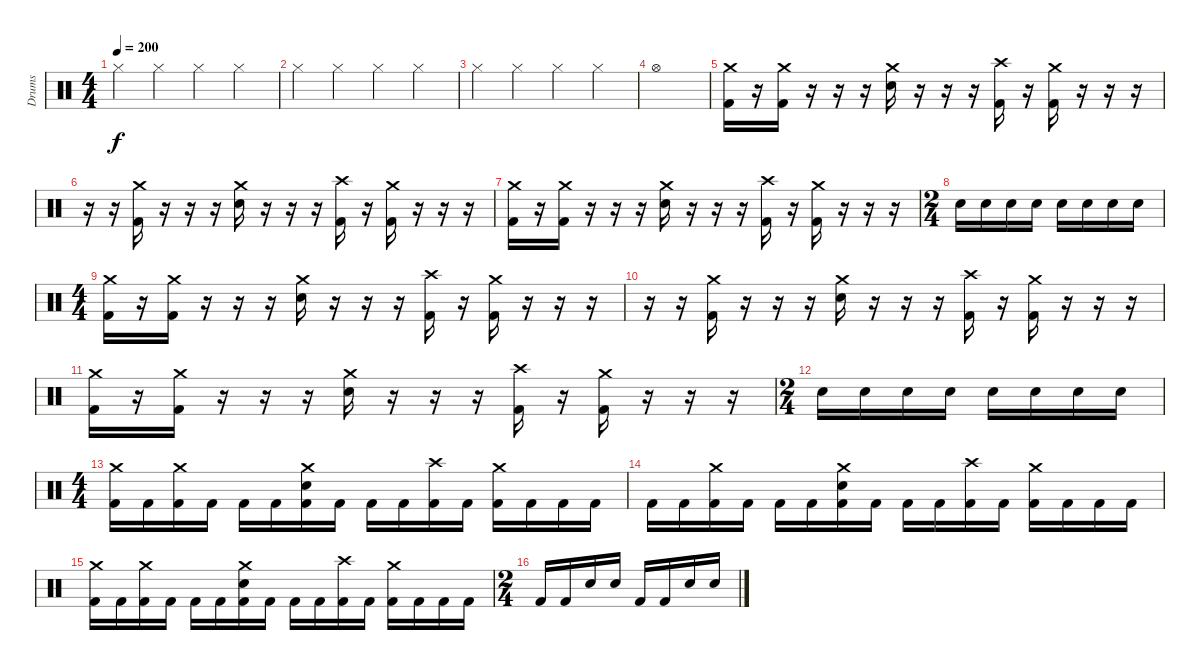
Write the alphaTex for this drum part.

\track ("Drums" "Drums") {instrument percussion}
\staff {score}
\articulation defaults
\ts (4 4)
\tempo 200
\clef neutral
\ks c "Hi-Hat (closed)".4{dy f} "Hi-Hat (closed)".4 "Hi-Hat (closed)".4 "Hi-Hat (closed)".4
|
"Hi-Hat (closed)".4 "Hi-Hat (closed)".4 "Hi-Hat (closed)".4 "Hi-Hat (closed)".4 |
"Hi-Hat (closed)".4 "Hi-Hat (closed)".4 "Hi-Hat (closed)".4 "Hi-Hat (closed)".4 |
"Hi-Hat (open)".1 |
("Crash medium (hit)" "Kick (hit) 2").16 r.16 ("Crash medium (hit)" "Kick (hit) 2").16 r.16 r.16 r.16 ("Crash medium (hit)" "Electric Snare (hit)").16 r.16 r.16 r.16 ("Crash high (hit)" "Kick (hit) 2").16 r.16 ("Crash medium (hit)" "Kick (hit) 2").16 r.16 r.16 r.16 |
r.16 r.16 ("Crash medium (hit)" "Kick (hit) 2").16 r.16 r.16 r.16 ("Crash medium (hit)" "Electric Snare (hit)").16 r.16 r.16 r.16 ("Crash high (hit)" "Kick (hit) 2").16 r.16 ("Crash medium (hit)" "Kick (hit) 2").16 r.16 r.16 r.16 |
("Crash medium (hit)" "Kick (hit) 2").16 r.16 ("Crash medium (hit)" "Kick (hit) 2").16 r.16 r.16 r.16 ("Crash medium (hit)" "Electric Snare (hit)").16 r.16 r.16 r.16 ("Crash high (hit)" "Kick (hit) 2").16 r.16 ("Crash medium (hit)" "Kick (hit) 2").16 r.16 r.16 r.16 |
\ts (2 4)
"Electric Snare (hit)".16 "Electric Snare (hit)".16 "Electric Snare (hit)".16 "Electric Snare (hit)".16 "Electric Snare (hit)".16 "Electric Snare (hit)".16 "Electric Snare (hit)".16 "Electric Snare (hit)".16 |
\ts (4 4)
("Crash medium (hit)" "Kick (hit) 2").16 r.16 ("Crash medium (hit)" "Kick (hit) 2").16 r.16 r.16 r.16 ("Crash medium (hit)" "Electric Snare (hit)").16 r.16 r.16 r.16 ("Crash high (hit)" "Kick (hit) 2").16 r.16 ("Crash medium (hit)" "Kick (hit) 2").16 r.16 r.16 r.16 |
r.16 r.16 ("Crash medium (hit)" "Kick (hit) 2").16 r.16 r.16 r.16 ("Crash medium (hit)" "Electric Snare (hit)").16 r.16 r.16 r.16 ("Crash high (hit)" "Kick (hit) 2").16 r.16 ("Crash medium (hit)" "Kick (hit) 2").16 r.16 r.16 r.16 |
("Crash medium (hit)" "Kick (hit) 2").16 r.16 ("Crash medium (hit)" "Kick (hit) 2").16 r.16 r.16 r.16 ("Crash medium (hit)" "Electric Snare (hit)").16 r.16 r.16 r.16 ("Crash high (hit)" "Kick (hit) 2").16 r.16 ("Crash medium (hit)" "Kick (hit) 2").16 r.16 r.16 r.16 |
\ts (2 4)
"Electric Snare (hit)".16 "Electric Snare (hit)".16 "Electric Snare (hit)".16 "Electric Snare (hit)".16 "Electric Snare (hit)".16 "Electric Snare (hit)".16 "Electric Snare (hit)".16 "Electric Snare (hit)".16 |
\ts (4 4)
("Crash medium (hit)" "Kick (hit) 2").16 "Kick (hit) 2".16 ("Crash medium (hit)" "Kick (hit) 2").16 "Kick (hit) 2".16 "Kick (hit) 2".16 "Kick (hit) 2".16 ("Crash medium (hit)" "Electric Snare (hit)" "Kick (hit) 2").16 "Kick (hit) 2".16 "Kick (hit) 2".16 "Kick (hit) 2".16 ("Crash high (hit)" "Kick (hit) 2").16 "Kick (hit) 2".16 ("Crash medium (hit)" "Kick (hit) 2").16 "Kick (hit) 2".16 "Kick (hit) 2".16 "Kick (hit) 2".16 |
"Kick (hit) 2".16 "Kick (hit) 2".16 ("Crash medium (hit)" "Kick (hit) 2").16 "Kick (hit) 2".16 "Kick (hit) 2".16 "Kick (hit) 2".16 ("Crash medium (hit)" "Electric Snare (hit)" "Kick (hit) 2").16 "Kick (hit) 2".16 "Kick (hit) 2".16 "Kick (hit) 2".16 ("Crash high (hit)" "Kick (hit) 2").16 "Kick (hit) 2".16 ("Crash medium (hit)" "Kick (hit) 2").16 "Kick (hit) 2".16 "Kick (hit) 2".16 "Kick (hit) 2".16 |
("Crash medium (hit)" "Kick (hit) 2").16 "Kick (hit) 2".16 ("Crash medium (hit)" "Kick (hit) 2").16 "Kick (hit) 2".16 "Kick (hit) 2".16 "Kick (hit) 2".16 ("Crash medium (hit)" "Electric Snare (hit)" "Kick (hit) 2").16 "Kick (hit) 2".16 "Kick (hit) 2".16 "Kick (hit) 2".16 ("Crash high (hit)" "Kick (hit) 2").16 "Kick (hit) 2".16 ("Crash medium (hit)" "Kick (hit) 2").16 "Kick (hit) 2".16 "Kick (hit) 2".16 "Kick (hit) 2".16 |
\ts (2 4)
"Kick (hit) 2".16 "Kick (hit) 2".16 "Electric Snare (hit)".16 "Electric Snare (hit)".16 "Kick (hit) 2".16 "Kick (hit) 2".16 "Electric Snare (hit)".16 "Electric Snare (hit)".16
